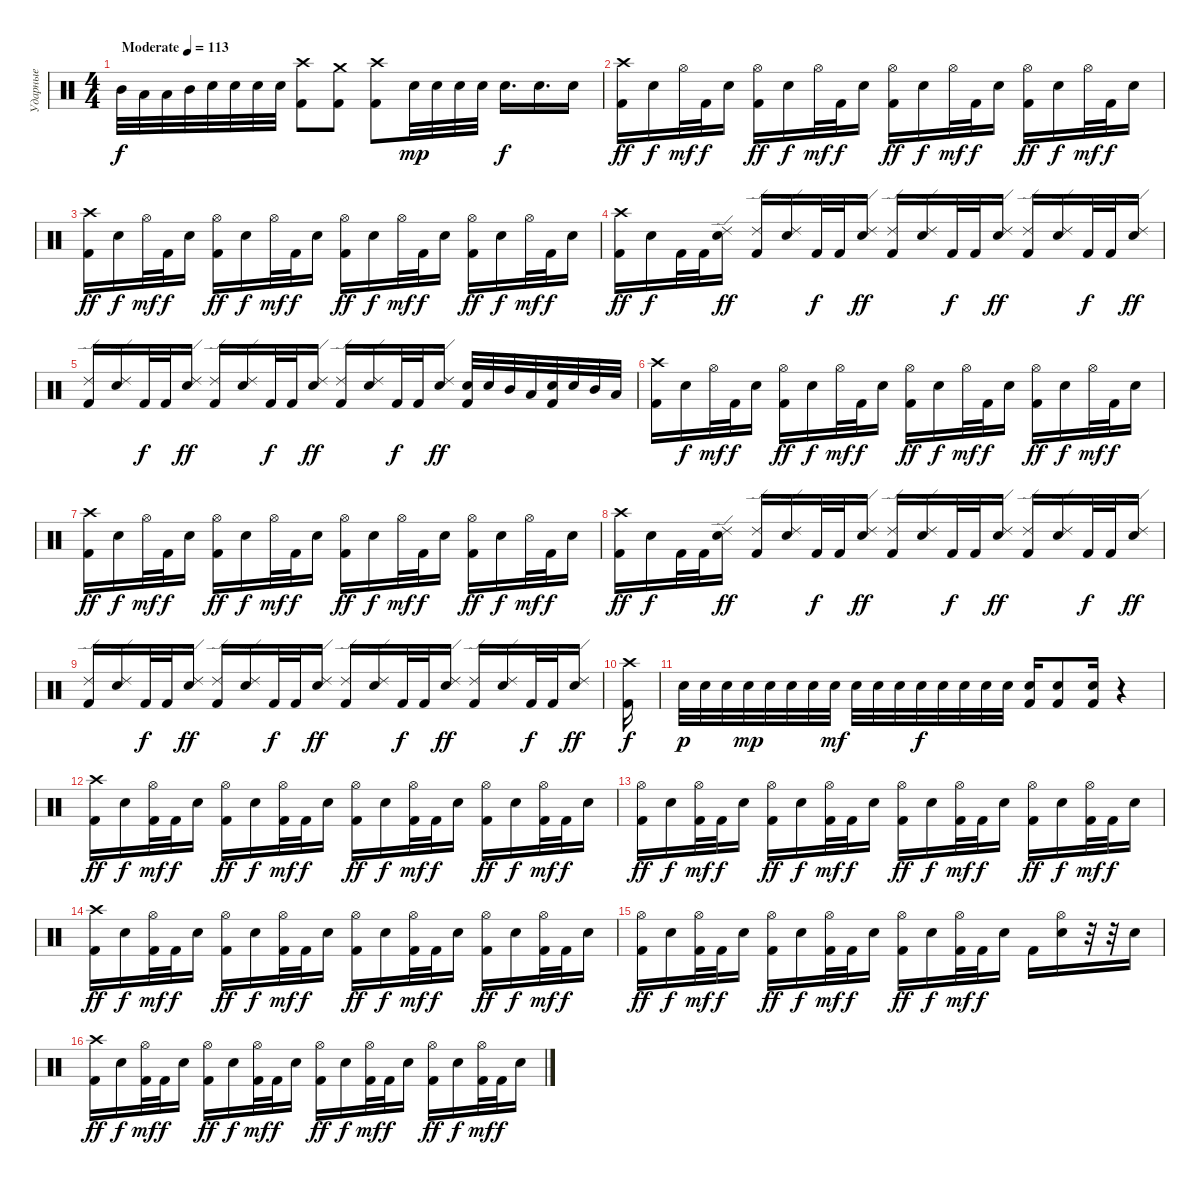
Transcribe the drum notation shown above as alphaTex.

\track ("Ударные" "Ударные") {instrument percussion}
\staff {score}
\articulation defaults
\ts (4 4)
\tempo (113 "Moderate")
\clef neutral
\ks c "Mid Tom (hit)".32{dy f} "Low Tom (hit)".32 "Low Tom (hit)".32 "Mid Tom (hit)".32 "Electric Snare (hit)".32 "Electric Snare (hit)".32 "Electric Snare (hit)".32 "Electric Snare (hit)".32
("Crash high (hit)" "Kick (hit) 2").8 ("Crash medium (hit)" "Kick (hit) 2").8 ("Crash high (hit)" "Kick (hit) 2").8 "Electric Snare (hit)".32{dy mp} "Electric Snare (hit)".32 "Electric Snare (hit)".32 "Electric Snare (hit)".32 "Electric Snare (hit)".16{d dy f} "Electric Snare (hit)".16{d} "Electric Snare (hit)".16 |
("Crash high (hit)" "Kick (hit) 2").16{dy ff} "Electric Snare (hit)".16{dy f} "Hi-Hat (open)".32{dy mf} "Kick (hit) 2".32{dy f} "Electric Snare (hit)".16 ("Hi-Hat (open)" "Kick (hit) 2").16{dy ff} "Electric Snare (hit)".16{dy f} "Hi-Hat (open)".32{dy mf} "Kick (hit) 2".32{dy f} "Electric Snare (hit)".16 ("Hi-Hat (open)" "Kick (hit) 2").16{dy ff} "Electric Snare (hit)".16{dy f} "Hi-Hat (open)".32{dy mf} "Kick (hit) 2".32{dy f} "Electric Snare (hit)".16 ("Hi-Hat (open)" "Kick (hit) 2").16{dy ff} "Electric Snare (hit)".16{dy f} "Hi-Hat (open)".32{dy mf} "Kick (hit) 2".32{dy f} "Electric Snare (hit)".16 |
("Crash high (hit)" "Kick (hit) 2").16{dy ff} "Electric Snare (hit)".16{dy f} "Hi-Hat (open)".32{dy mf} "Kick (hit) 2".32{dy f} "Electric Snare (hit)".16 ("Hi-Hat (open)" "Kick (hit) 2").16{dy ff} "Electric Snare (hit)".16{dy f} "Hi-Hat (open)".32{dy mf} "Kick (hit) 2".32{dy f} "Electric Snare (hit)".16 ("Hi-Hat (open)" "Kick (hit) 2").16{dy ff} "Electric Snare (hit)".16{dy f} "Hi-Hat (open)".32{dy mf} "Kick (hit) 2".32{dy f} "Electric Snare (hit)".16 ("Hi-Hat (open)" "Kick (hit) 2").16{dy ff} "Electric Snare (hit)".16{dy f} "Hi-Hat (open)".32{dy mf} "Kick (hit) 2".32{dy f} "Electric Snare (hit)".16 |
("Crash high (hit)" "Kick (hit) 2").16{dy ff} "Electric Snare (hit)".16{dy f} "Kick (hit) 2".32 "Kick (hit) 2".32 ("Ride (edge) 2" "Electric Snare (hit)").16{dy ff} ("Ride (edge) 2" "Kick (hit) 2").16 ("Ride (edge) 2" "Electric Snare (hit)").16 "Kick (hit) 2".32{dy f} "Kick (hit) 2".32 ("Ride (edge) 2" "Electric Snare (hit)").16{dy ff} ("Ride (edge) 2" "Kick (hit) 2").16 ("Ride (edge) 2" "Electric Snare (hit)").16 "Kick (hit) 2".32{dy f} "Kick (hit) 2".32 ("Ride (edge) 2" "Electric Snare (hit)").16{dy ff} ("Ride (edge) 2" "Kick (hit) 2").16 ("Ride (edge) 2" "Electric Snare (hit)").16 "Kick (hit) 2".32{dy f} "Kick (hit) 2".32 ("Ride (edge) 2" "Electric Snare (hit)").16{dy ff} |
("Ride (edge) 2" "Kick (hit) 2").16 ("Ride (edge) 2" "Electric Snare (hit)").16 "Kick (hit) 2".32{dy f} "Kick (hit) 2".32 ("Ride (edge) 2" "Electric Snare (hit)").16{dy ff} ("Ride (edge) 2" "Kick (hit) 2").16 ("Ride (edge) 2" "Electric Snare (hit)").16 "Kick (hit) 2".32{dy f} "Kick (hit) 2".32 ("Ride (edge) 2" "Electric Snare (hit)").16{dy ff} ("Ride (edge) 2" "Kick (hit) 2").16 ("Ride (edge) 2" "Electric Snare (hit)").16 "Kick (hit) 2".32{dy f} "Kick (hit) 2".32 ("Ride (edge) 2" "Electric Snare (hit)").16{dy ff} ("Electric Snare (hit)" "Kick (hit) 2").32 "Electric Snare (hit)".32 "Mid Tom (hit)".32 "Low Tom (hit)".32 ("Electric Snare (hit)" "Kick (hit) 2").32 "Electric Snare (hit)".32 "Mid Tom (hit)".32 "Low Tom (hit)".32 |
("Crash high (hit)" "Kick (hit) 2").16 "Electric Snare (hit)".16{dy f} "Hi-Hat (open)".32{dy mf} "Kick (hit) 2".32{dy f} "Electric Snare (hit)".16 ("Hi-Hat (open)" "Kick (hit) 2").16{dy ff} "Electric Snare (hit)".16{dy f} "Hi-Hat (open)".32{dy mf} "Kick (hit) 2".32{dy f} "Electric Snare (hit)".16 ("Hi-Hat (open)" "Kick (hit) 2").16{dy ff} "Electric Snare (hit)".16{dy f} "Hi-Hat (open)".32{dy mf} "Kick (hit) 2".32{dy f} "Electric Snare (hit)".16 ("Hi-Hat (open)" "Kick (hit) 2").16{dy ff} "Electric Snare (hit)".16{dy f} "Hi-Hat (open)".32{dy mf} "Kick (hit) 2".32{dy f} "Electric Snare (hit)".16 |
("Crash high (hit)" "Kick (hit) 2").16{dy ff} "Electric Snare (hit)".16{dy f} "Hi-Hat (open)".32{dy mf} "Kick (hit) 2".32{dy f} "Electric Snare (hit)".16 ("Hi-Hat (open)" "Kick (hit) 2").16{dy ff} "Electric Snare (hit)".16{dy f} "Hi-Hat (open)".32{dy mf} "Kick (hit) 2".32{dy f} "Electric Snare (hit)".16 ("Hi-Hat (open)" "Kick (hit) 2").16{dy ff} "Electric Snare (hit)".16{dy f} "Hi-Hat (open)".32{dy mf} "Kick (hit) 2".32{dy f} "Electric Snare (hit)".16 ("Hi-Hat (open)" "Kick (hit) 2").16{dy ff} "Electric Snare (hit)".16{dy f} "Hi-Hat (open)".32{dy mf} "Kick (hit) 2".32{dy f} "Electric Snare (hit)".16 |
("Crash high (hit)" "Kick (hit) 2").16{dy ff} "Electric Snare (hit)".16{dy f} "Kick (hit) 2".32 "Kick (hit) 2".32 ("Ride (edge) 2" "Electric Snare (hit)").16{dy ff} ("Ride (edge) 2" "Kick (hit) 2").16 ("Ride (edge) 2" "Electric Snare (hit)").16 "Kick (hit) 2".32{dy f} "Kick (hit) 2".32 ("Ride (edge) 2" "Electric Snare (hit)").16{dy ff} ("Ride (edge) 2" "Kick (hit) 2").16 ("Ride (edge) 2" "Electric Snare (hit)").16 "Kick (hit) 2".32{dy f} "Kick (hit) 2".32 ("Ride (edge) 2" "Electric Snare (hit)").16{dy ff} ("Ride (edge) 2" "Kick (hit) 2").16 ("Ride (edge) 2" "Electric Snare (hit)").16 "Kick (hit) 2".32{dy f} "Kick (hit) 2".32 ("Ride (edge) 2" "Electric Snare (hit)").16{dy ff} |
("Ride (edge) 2" "Kick (hit) 2").16 ("Ride (edge) 2" "Electric Snare (hit)").16 "Kick (hit) 2".32{dy f} "Kick (hit) 2".32 ("Ride (edge) 2" "Electric Snare (hit)").16{dy ff} ("Ride (edge) 2" "Kick (hit) 2").16 ("Ride (edge) 2" "Electric Snare (hit)").16 "Kick (hit) 2".32{dy f} "Kick (hit) 2".32 ("Ride (edge) 2" "Electric Snare (hit)").16{dy ff} ("Ride (edge) 2" "Kick (hit) 2").16 ("Ride (edge) 2" "Electric Snare (hit)").16 "Kick (hit) 2".32{dy f} "Kick (hit) 2".32 ("Ride (edge) 2" "Electric Snare (hit)").16{dy ff} ("Ride (edge) 2" "Kick (hit) 2").16 ("Ride (edge) 2" "Electric Snare (hit)").16 "Kick (hit) 2".32{dy f} "Kick (hit) 2".32 ("Ride (edge) 2" "Electric Snare (hit)").16{dy ff} |
("Crash high (hit)" "Kick (hit) 2").16{dy f} |
"Electric Snare (hit)".32{dy p} "Electric Snare (hit)".32 "Electric Snare (hit)".32 "Electric Snare (hit)".32{dy mp} "Electric Snare (hit)".32 "Electric Snare (hit)".32 "Electric Snare (hit)".32 "Electric Snare (hit)".32{dy mf} "Electric Snare (hit)".32 "Electric Snare (hit)".32 "Electric Snare (hit)".32 "Electric Snare (hit)".32{dy f} "Electric Snare (hit)".32 "Electric Snare (hit)".32 "Electric Snare (hit)".32 "Electric Snare (hit)".32 ("Electric Snare (hit)" "Kick (hit) 2").16 ("Electric Snare (hit)" "Kick (hit) 2").8 ("Electric Snare (hit)" "Kick (hit) 2").16 r.4 |
("Crash high (hit)" "Kick (hit) 2").16{dy ff} "Electric Snare (hit)".16{dy f} ("Hi-Hat (open)" "Kick (hit) 2").32{dy mf} "Kick (hit) 2".32{dy f} "Electric Snare (hit)".16 ("Hi-Hat (open)" "Kick (hit) 2").16{dy ff} "Electric Snare (hit)".16{dy f} ("Hi-Hat (open)" "Kick (hit) 2").32{dy mf} "Kick (hit) 2".32{dy f} "Electric Snare (hit)".16 ("Hi-Hat (open)" "Kick (hit) 2").16{dy ff} "Electric Snare (hit)".16{dy f} ("Hi-Hat (open)" "Kick (hit) 2").32{dy mf} "Kick (hit) 2".32{dy f} "Electric Snare (hit)".16 ("Hi-Hat (open)" "Kick (hit) 2").16{dy ff} "Electric Snare (hit)".16{dy f} ("Hi-Hat (open)" "Kick (hit) 2").32{dy mf} "Kick (hit) 2".32{dy f} "Electric Snare (hit)".16 |
("Hi-Hat (open)" "Kick (hit) 2").16{dy ff} "Electric Snare (hit)".16{dy f} ("Hi-Hat (open)" "Kick (hit) 2").32{dy mf} "Kick (hit) 2".32{dy f} "Electric Snare (hit)".16 ("Hi-Hat (open)" "Kick (hit) 2").16{dy ff} "Electric Snare (hit)".16{dy f} ("Hi-Hat (open)" "Kick (hit) 2").32{dy mf} "Kick (hit) 2".32{dy f} "Electric Snare (hit)".16 ("Hi-Hat (open)" "Kick (hit) 2").16{dy ff} "Electric Snare (hit)".16{dy f} ("Hi-Hat (open)" "Kick (hit) 2").32{dy mf} "Kick (hit) 2".32{dy f} "Electric Snare (hit)".16 ("Hi-Hat (open)" "Kick (hit) 2").16{dy ff} "Electric Snare (hit)".16{dy f} ("Hi-Hat (open)" "Kick (hit) 2").32{dy mf} "Kick (hit) 2".32{dy f} "Electric Snare (hit)".16 |
("Crash high (hit)" "Kick (hit) 2").16{dy ff} "Electric Snare (hit)".16{dy f} ("Hi-Hat (open)" "Kick (hit) 2").32{dy mf} "Kick (hit) 2".32{dy f} "Electric Snare (hit)".16 ("Hi-Hat (open)" "Kick (hit) 2").16{dy ff} "Electric Snare (hit)".16{dy f} ("Hi-Hat (open)" "Kick (hit) 2").32{dy mf} "Kick (hit) 2".32{dy f} "Electric Snare (hit)".16 ("Hi-Hat (open)" "Kick (hit) 2").16{dy ff} "Electric Snare (hit)".16{dy f} ("Hi-Hat (open)" "Kick (hit) 2").32{dy mf} "Kick (hit) 2".32{dy f} "Electric Snare (hit)".16 ("Hi-Hat (open)" "Kick (hit) 2").16{dy ff} "Electric Snare (hit)".16{dy f} ("Hi-Hat (open)" "Kick (hit) 2").32{dy mf} "Kick (hit) 2".32{dy f} "Electric Snare (hit)".16 |
("Hi-Hat (open)" "Kick (hit) 2").16{dy ff} "Electric Snare (hit)".16{dy f} ("Hi-Hat (open)" "Kick (hit) 2").32{dy mf} "Kick (hit) 2".32{dy f} "Electric Snare (hit)".16 ("Hi-Hat (open)" "Kick (hit) 2").16{dy ff} "Electric Snare (hit)".16{dy f} ("Hi-Hat (open)" "Kick (hit) 2").32{dy mf} "Kick (hit) 2".32{dy f} "Electric Snare (hit)".16 ("Hi-Hat (open)" "Kick (hit) 2").16{dy ff} "Electric Snare (hit)".16{dy f} ("Hi-Hat (open)" "Kick (hit) 2").32{dy mf} "Kick (hit) 2".32{dy f} "Electric Snare (hit)".16 "Kick (hit) 2".16 ("Hi-Hat (open)" "Electric Snare (hit)").16 r.32 r.32 "Electric Snare (hit)".16 |
("Crash high (hit)" "Kick (hit) 2").16{dy ff} "Electric Snare (hit)".16{dy f} ("Hi-Hat (open)" "Kick (hit) 2").32{dy mf} "Kick (hit) 2".32{dy f} "Electric Snare (hit)".16 ("Hi-Hat (open)" "Kick (hit) 2").16{dy ff} "Electric Snare (hit)".16{dy f} ("Hi-Hat (open)" "Kick (hit) 2").32{dy mf} "Kick (hit) 2".32{dy f} "Electric Snare (hit)".16 ("Hi-Hat (open)" "Kick (hit) 2").16{dy ff} "Electric Snare (hit)".16{dy f} ("Hi-Hat (open)" "Kick (hit) 2").32{dy mf} "Kick (hit) 2".32{dy f} "Electric Snare (hit)".16 ("Hi-Hat (open)" "Kick (hit) 2").16{dy ff} "Electric Snare (hit)".16{dy f} ("Hi-Hat (open)" "Kick (hit) 2").32{dy mf} "Kick (hit) 2".32{dy f} "Electric Snare (hit)".16
